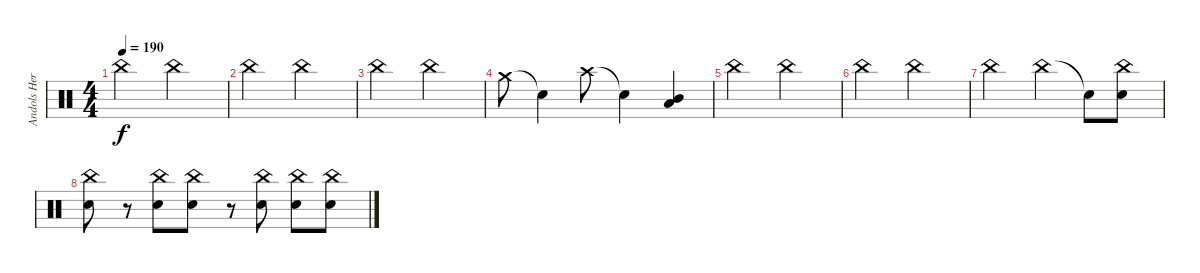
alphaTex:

\track ("Andols Herrick" "Andols Her") {instrument percussion}
\staff {score}
\articulation defaults
\ts (4 4)
\tempo 190
\clef neutral
\ks c "China (hit)".2{dy f} "China (hit)".2
|
"China (hit)".2 "China (hit)".2 |
"China (hit)".2 "China (hit)".2 |
"Crash medium (hit)".8 "Snare (hit)"{t}.4 "Crash high (hit)".8 "Snare (hit)"{t}.4 ("Mid Tom (hit)" "Low Tom (hit)").4 |
"China (hit)".2 "China (hit)".2 |
"China (hit)".2 "China (hit)".2 |
"China (hit)".2 "China (hit)".4 "Snare (hit)"{t}.8 ("China (hit)" "Electric Snare (hit)").8 |
("China (hit)" "Electric Snare (hit)").8 r.8 ("China (hit)" "Electric Snare (hit)").8 ("China (hit)" "Electric Snare (hit)").8 r.8 ("China (hit)" "Electric Snare (hit)").8 ("China (hit)" "Electric Snare (hit)").8 ("China (hit)" "Electric Snare (hit)").8
